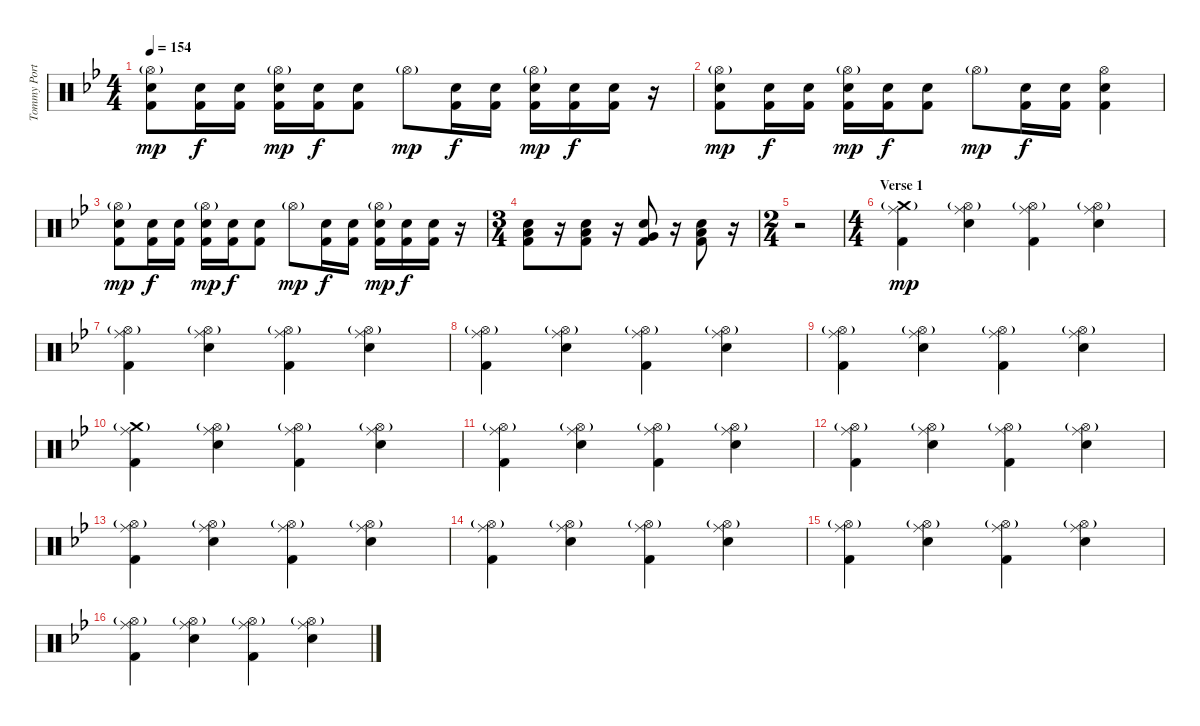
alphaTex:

\track ("Tommy Portimo" "Tommy Port") {instrument percussion}
\staff {score}
\articulation defaults
\ts (4 4)
\tempo 154
\clef neutral
\ks gminor
("Hi-Hat (open)"{g} "Electric Snare (hit)" "Kick (hit) 2").8{dy mp} ("Electric Snare (hit)" "Kick (hit) 2").16{dy f} ("Electric Snare (hit)" "Kick (hit) 2").16 ("Hi-Hat (open)"{g} "Electric Snare (hit)" "Kick (hit) 2").16{dy mp} ("Electric Snare (hit)" "Kick (hit) 2").16{dy f} ("Electric Snare (hit)" "Kick (hit) 2").8 "Hi-Hat (open)"{g}.8{dy mp} ("Electric Snare (hit)" "Kick (hit) 2").16{dy f} ("Electric Snare (hit)" "Kick (hit) 2").16 ("Hi-Hat (open)"{g} "Electric Snare (hit)" "Kick (hit) 2").16{dy mp} ("Electric Snare (hit)" "Kick (hit) 2").16{dy f} ("Electric Snare (hit)" "Kick (hit) 2").16 r.16 |
("Hi-Hat (open)"{g} "Electric Snare (hit)" "Kick (hit) 2").8{dy mp} ("Electric Snare (hit)" "Kick (hit) 2").16{dy f} ("Electric Snare (hit)" "Kick (hit) 2").16 ("Hi-Hat (open)"{g} "Electric Snare (hit)" "Kick (hit) 2").16{dy mp} ("Electric Snare (hit)" "Kick (hit) 2").16{dy f} ("Electric Snare (hit)" "Kick (hit) 2").8 "Hi-Hat (open)"{g}.8{dy mp} ("Electric Snare (hit)" "Kick (hit) 2").16{dy f} ("Electric Snare (hit)" "Kick (hit) 2").16 ("Hi-Hat (open)" "Electric Snare (hit)" "Kick (hit) 2").4 |
("Hi-Hat (open)"{g} "Electric Snare (hit)" "Kick (hit) 2").8{dy mp} ("Electric Snare (hit)" "Kick (hit) 2").16{dy f} ("Electric Snare (hit)" "Kick (hit) 2").16 ("Hi-Hat (open)"{g} "Electric Snare (hit)" "Kick (hit) 2").16{dy mp} ("Electric Snare (hit)" "Kick (hit) 2").16{dy f} ("Electric Snare (hit)" "Kick (hit) 2").8 "Hi-Hat (open)"{g}.8{dy mp} ("Electric Snare (hit)" "Kick (hit) 2").16{dy f} ("Electric Snare (hit)" "Kick (hit) 2").16 ("Hi-Hat (open)"{g} "Electric Snare (hit)" "Kick (hit) 2").16{dy mp} ("Electric Snare (hit)" "Kick (hit) 2").16{dy f} ("Electric Snare (hit)" "Kick (hit) 2").16 r.16 |
\ts (3 4)
("Low Tom (hit)" "Electric Snare (hit)" "Kick (hit) 2").8 r.16 ("Low Tom (hit)" "Electric Snare (hit)" "Kick (hit) 2").8 r.16 ("Very Low Tom (hit)" "Electric Snare (hit)" "Kick (hit) 2").8 r.16 ("Low Floor Tom (hit)" "Electric Snare (hit)" "Kick (hit) 2").8 r.16 |
\ts (2 4)
r.2 |
\ts (4 4)
\section ("" "Verse 1")
("Crash medium (hit)"{g} "Ride (middle)" "Kick (hit) 2").4{dy mp} ("Hi-Hat (open)"{g} "Ride (middle)" "Electric Snare (hit)").4 ("Hi-Hat (open)"{g} "Ride (middle)" "Kick (hit) 2").4 ("Hi-Hat (open)"{g} "Ride (middle)" "Electric Snare (hit)").4 |
("Hi-Hat (open)"{g} "Ride (middle)" "Kick (hit) 2").4 ("Hi-Hat (open)"{g} "Ride (middle)" "Electric Snare (hit)").4 ("Hi-Hat (open)"{g} "Ride (middle)" "Kick (hit) 2").4 ("Hi-Hat (open)"{g} "Ride (middle)" "Electric Snare (hit)").4 |
("Hi-Hat (open)"{g} "Ride (middle)" "Kick (hit) 2").4 ("Hi-Hat (open)"{g} "Ride (middle)" "Electric Snare (hit)").4 ("Hi-Hat (open)"{g} "Ride (middle)" "Kick (hit) 2").4 ("Hi-Hat (open)"{g} "Ride (middle)" "Electric Snare (hit)").4 |
("Hi-Hat (open)"{g} "Ride (middle)" "Kick (hit) 2").4 ("Hi-Hat (open)"{g} "Ride (middle)" "Electric Snare (hit)").4 ("Hi-Hat (open)"{g} "Ride (middle)" "Kick (hit) 2").4 ("Hi-Hat (open)"{g} "Ride (middle)" "Electric Snare (hit)").4 |
("Crash medium (hit)"{g} "Ride (middle)" "Kick (hit) 2").4 ("Hi-Hat (open)"{g} "Ride (middle)" "Electric Snare (hit)").4 ("Hi-Hat (open)"{g} "Ride (middle)" "Kick (hit) 2").4 ("Hi-Hat (open)"{g} "Ride (middle)" "Electric Snare (hit)").4 |
("Hi-Hat (open)"{g} "Ride (middle)" "Kick (hit) 2").4 ("Hi-Hat (open)"{g} "Ride (middle)" "Electric Snare (hit)").4 ("Hi-Hat (open)"{g} "Ride (middle)" "Kick (hit) 2").4 ("Hi-Hat (open)"{g} "Ride (middle)" "Electric Snare (hit)").4 |
("Hi-Hat (open)"{g} "Ride (middle)" "Kick (hit) 2").4 ("Hi-Hat (open)"{g} "Ride (middle)" "Electric Snare (hit)").4 ("Hi-Hat (open)"{g} "Ride (middle)" "Kick (hit) 2").4 ("Hi-Hat (open)"{g} "Ride (middle)" "Electric Snare (hit)").4 |
("Hi-Hat (open)"{g} "Ride (middle)" "Kick (hit) 2").4 ("Hi-Hat (open)"{g} "Ride (middle)" "Electric Snare (hit)").4 ("Hi-Hat (open)"{g} "Ride (middle)" "Kick (hit) 2").4 ("Hi-Hat (open)"{g} "Ride (middle)" "Electric Snare (hit)").4 |
("Hi-Hat (open)"{g} "Ride (middle)" "Kick (hit) 2").4 ("Hi-Hat (open)"{g} "Ride (middle)" "Electric Snare (hit)").4 ("Hi-Hat (open)"{g} "Ride (middle)" "Kick (hit) 2").4 ("Hi-Hat (open)"{g} "Ride (middle)" "Electric Snare (hit)").4 |
("Hi-Hat (open)"{g} "Ride (middle)" "Kick (hit) 2").4 ("Hi-Hat (open)"{g} "Ride (middle)" "Electric Snare (hit)").4 ("Hi-Hat (open)"{g} "Ride (middle)" "Kick (hit) 2").4 ("Hi-Hat (open)"{g} "Ride (middle)" "Electric Snare (hit)").4 |
("Hi-Hat (open)"{g} "Ride (middle)" "Kick (hit) 2").4 ("Hi-Hat (open)"{g} "Ride (middle)" "Electric Snare (hit)").4 ("Hi-Hat (open)"{g} "Ride (middle)" "Kick (hit) 2").4 ("Hi-Hat (open)"{g} "Ride (middle)" "Electric Snare (hit)").4
